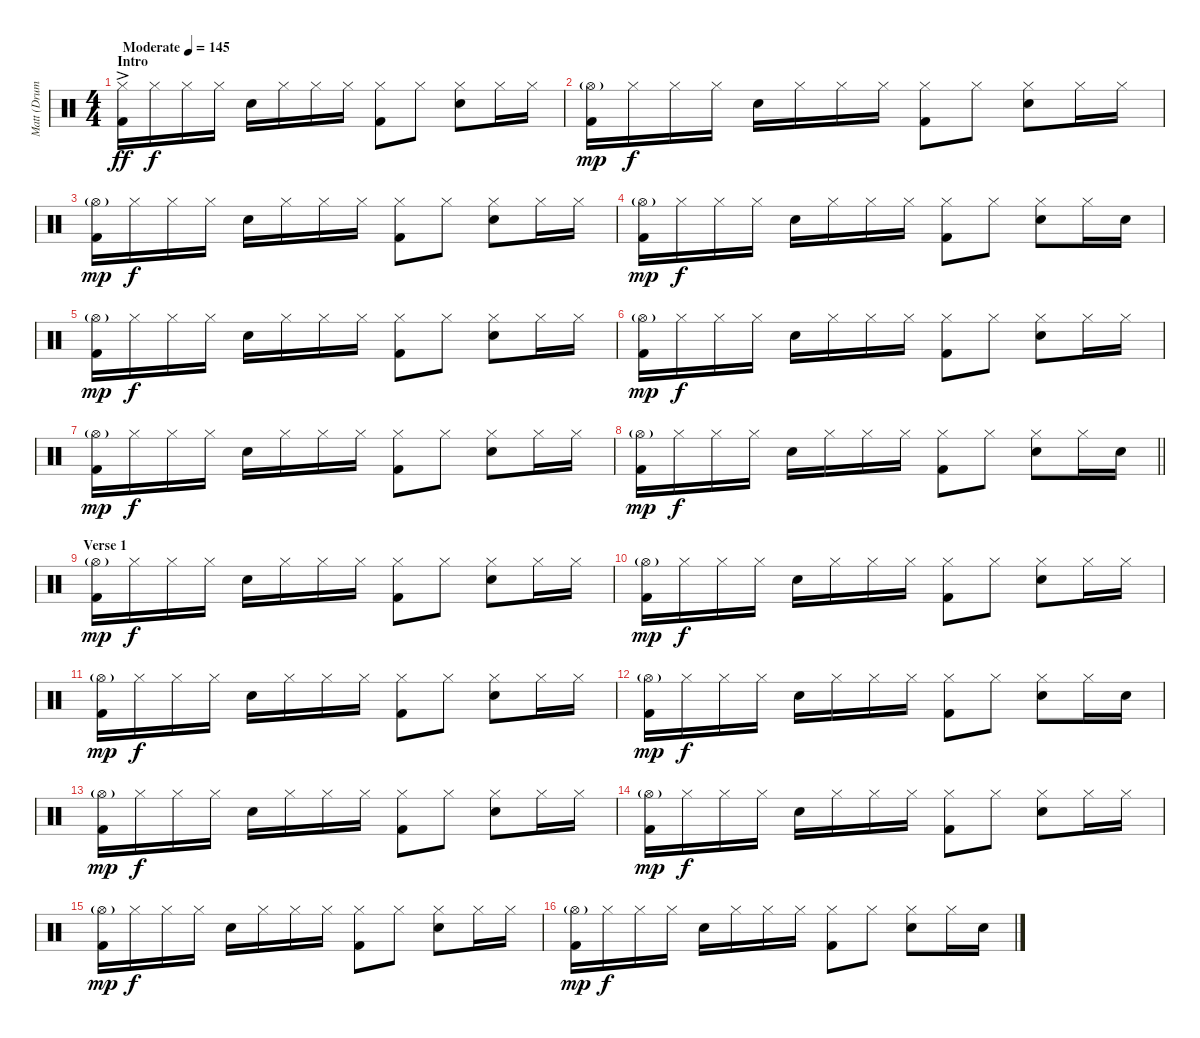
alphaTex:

\track ("Matt (Drums)" "Matt (Drum") {instrument percussion}
\staff {score}
\articulation defaults
\ts (4 4)
\section ("" "Intro")
\tempo (145 "Moderate")
\clef neutral
\ks c
("Hi-Hat (closed)"{ac} "Kick (hit) 2").16{dy ff} "Hi-Hat (closed)".16{dy f} "Hi-Hat (closed)".16 "Hi-Hat (closed)".16 "Electric Snare (hit)".16 "Hi-Hat (closed)".16 "Hi-Hat (closed)".16 "Hi-Hat (closed)".16 ("Hi-Hat (closed)" "Kick (hit) 2").8 "Hi-Hat (closed)".8 ("Hi-Hat (closed)" "Electric Snare (hit)").8 "Hi-Hat (closed)".16 "Hi-Hat (closed)".16 |
("Hi-Hat (open)"{g} "Kick (hit) 2").16{dy mp} "Hi-Hat (closed)".16{dy f} "Hi-Hat (closed)".16 "Hi-Hat (closed)".16 "Electric Snare (hit)".16 "Hi-Hat (closed)".16 "Hi-Hat (closed)".16 "Hi-Hat (closed)".16 ("Hi-Hat (closed)" "Kick (hit) 2").8 "Hi-Hat (closed)".8 ("Hi-Hat (closed)" "Electric Snare (hit)").8 "Hi-Hat (closed)".16 "Hi-Hat (closed)".16 |
("Hi-Hat (open)"{g} "Kick (hit) 2").16{dy mp} "Hi-Hat (closed)".16{dy f} "Hi-Hat (closed)".16 "Hi-Hat (closed)".16 "Electric Snare (hit)".16 "Hi-Hat (closed)".16 "Hi-Hat (closed)".16 "Hi-Hat (closed)".16 ("Hi-Hat (closed)" "Kick (hit) 2").8 "Hi-Hat (closed)".8 ("Hi-Hat (closed)" "Electric Snare (hit)").8 "Hi-Hat (closed)".16 "Hi-Hat (closed)".16 |
("Hi-Hat (open)"{g} "Kick (hit) 2").16{dy mp} "Hi-Hat (closed)".16{dy f} "Hi-Hat (closed)".16 "Hi-Hat (closed)".16 "Electric Snare (hit)".16 "Hi-Hat (closed)".16 "Hi-Hat (closed)".16 "Hi-Hat (closed)".16 ("Hi-Hat (closed)" "Kick (hit) 2").8 "Hi-Hat (closed)".8 ("Hi-Hat (closed)" "Electric Snare (hit)").8 "Hi-Hat (closed)".16 "Electric Snare (hit)".16 |
("Hi-Hat (open)"{g} "Kick (hit) 2").16{dy mp} "Hi-Hat (closed)".16{dy f} "Hi-Hat (closed)".16 "Hi-Hat (closed)".16 "Electric Snare (hit)".16 "Hi-Hat (closed)".16 "Hi-Hat (closed)".16 "Hi-Hat (closed)".16 ("Hi-Hat (closed)" "Kick (hit) 2").8 "Hi-Hat (closed)".8 ("Hi-Hat (closed)" "Electric Snare (hit)").8 "Hi-Hat (closed)".16 "Hi-Hat (closed)".16 |
("Hi-Hat (open)"{g} "Kick (hit) 2").16{dy mp} "Hi-Hat (closed)".16{dy f} "Hi-Hat (closed)".16 "Hi-Hat (closed)".16 "Electric Snare (hit)".16 "Hi-Hat (closed)".16 "Hi-Hat (closed)".16 "Hi-Hat (closed)".16 ("Hi-Hat (closed)" "Kick (hit) 2").8 "Hi-Hat (closed)".8 ("Hi-Hat (closed)" "Electric Snare (hit)").8 "Hi-Hat (closed)".16 "Hi-Hat (closed)".16 |
("Hi-Hat (open)"{g} "Kick (hit) 2").16{dy mp} "Hi-Hat (closed)".16{dy f} "Hi-Hat (closed)".16 "Hi-Hat (closed)".16 "Electric Snare (hit)".16 "Hi-Hat (closed)".16 "Hi-Hat (closed)".16 "Hi-Hat (closed)".16 ("Hi-Hat (closed)" "Kick (hit) 2").8 "Hi-Hat (closed)".8 ("Hi-Hat (closed)" "Electric Snare (hit)").8 "Hi-Hat (closed)".16 "Hi-Hat (closed)".16 |
\barLineRight lightlight
("Hi-Hat (open)"{g} "Kick (hit) 2").16{dy mp} "Hi-Hat (closed)".16{dy f} "Hi-Hat (closed)".16 "Hi-Hat (closed)".16 "Electric Snare (hit)".16 "Hi-Hat (closed)".16 "Hi-Hat (closed)".16 "Hi-Hat (closed)".16 ("Hi-Hat (closed)" "Kick (hit) 2").8 "Hi-Hat (closed)".8 ("Hi-Hat (closed)" "Electric Snare (hit)").8 "Hi-Hat (closed)".16 "Electric Snare (hit)".16 |
\section ("" "Verse 1")
("Hi-Hat (open)"{g} "Kick (hit) 2").16{dy mp} "Hi-Hat (closed)".16{dy f} "Hi-Hat (closed)".16 "Hi-Hat (closed)".16 "Electric Snare (hit)".16 "Hi-Hat (closed)".16 "Hi-Hat (closed)".16 "Hi-Hat (closed)".16 ("Hi-Hat (closed)" "Kick (hit) 2").8 "Hi-Hat (closed)".8 ("Hi-Hat (closed)" "Electric Snare (hit)").8 "Hi-Hat (closed)".16 "Hi-Hat (closed)".16 |
("Hi-Hat (open)"{g} "Kick (hit) 2").16{dy mp} "Hi-Hat (closed)".16{dy f} "Hi-Hat (closed)".16 "Hi-Hat (closed)".16 "Electric Snare (hit)".16 "Hi-Hat (closed)".16 "Hi-Hat (closed)".16 "Hi-Hat (closed)".16 ("Hi-Hat (closed)" "Kick (hit) 2").8 "Hi-Hat (closed)".8 ("Hi-Hat (closed)" "Electric Snare (hit)").8 "Hi-Hat (closed)".16 "Hi-Hat (closed)".16 |
("Hi-Hat (open)"{g} "Kick (hit) 2").16{dy mp} "Hi-Hat (closed)".16{dy f} "Hi-Hat (closed)".16 "Hi-Hat (closed)".16 "Electric Snare (hit)".16 "Hi-Hat (closed)".16 "Hi-Hat (closed)".16 "Hi-Hat (closed)".16 ("Hi-Hat (closed)" "Kick (hit) 2").8 "Hi-Hat (closed)".8 ("Hi-Hat (closed)" "Electric Snare (hit)").8 "Hi-Hat (closed)".16 "Hi-Hat (closed)".16 |
("Hi-Hat (open)"{g} "Kick (hit) 2").16{dy mp} "Hi-Hat (closed)".16{dy f} "Hi-Hat (closed)".16 "Hi-Hat (closed)".16 "Electric Snare (hit)".16 "Hi-Hat (closed)".16 "Hi-Hat (closed)".16 "Hi-Hat (closed)".16 ("Hi-Hat (closed)" "Kick (hit) 2").8 "Hi-Hat (closed)".8 ("Hi-Hat (closed)" "Electric Snare (hit)").8 "Hi-Hat (closed)".16 "Electric Snare (hit)".16 |
("Hi-Hat (open)"{g} "Kick (hit) 2").16{dy mp} "Hi-Hat (closed)".16{dy f} "Hi-Hat (closed)".16 "Hi-Hat (closed)".16 "Electric Snare (hit)".16 "Hi-Hat (closed)".16 "Hi-Hat (closed)".16 "Hi-Hat (closed)".16 ("Hi-Hat (closed)" "Kick (hit) 2").8 "Hi-Hat (closed)".8 ("Hi-Hat (closed)" "Electric Snare (hit)").8 "Hi-Hat (closed)".16 "Hi-Hat (closed)".16 |
("Hi-Hat (open)"{g} "Kick (hit) 2").16{dy mp} "Hi-Hat (closed)".16{dy f} "Hi-Hat (closed)".16 "Hi-Hat (closed)".16 "Electric Snare (hit)".16 "Hi-Hat (closed)".16 "Hi-Hat (closed)".16 "Hi-Hat (closed)".16 ("Hi-Hat (closed)" "Kick (hit) 2").8 "Hi-Hat (closed)".8 ("Hi-Hat (closed)" "Electric Snare (hit)").8 "Hi-Hat (closed)".16 "Hi-Hat (closed)".16 |
("Hi-Hat (open)"{g} "Kick (hit) 2").16{dy mp} "Hi-Hat (closed)".16{dy f} "Hi-Hat (closed)".16 "Hi-Hat (closed)".16 "Electric Snare (hit)".16 "Hi-Hat (closed)".16 "Hi-Hat (closed)".16 "Hi-Hat (closed)".16 ("Hi-Hat (closed)" "Kick (hit) 2").8 "Hi-Hat (closed)".8 ("Hi-Hat (closed)" "Electric Snare (hit)").8 "Hi-Hat (closed)".16 "Hi-Hat (closed)".16 |
("Hi-Hat (open)"{g} "Kick (hit) 2").16{dy mp} "Hi-Hat (closed)".16{dy f} "Hi-Hat (closed)".16 "Hi-Hat (closed)".16 "Electric Snare (hit)".16 "Hi-Hat (closed)".16 "Hi-Hat (closed)".16 "Hi-Hat (closed)".16 ("Hi-Hat (closed)" "Kick (hit) 2").8 "Hi-Hat (closed)".8 ("Hi-Hat (closed)" "Electric Snare (hit)").8 "Hi-Hat (closed)".16 "Electric Snare (hit)".16
